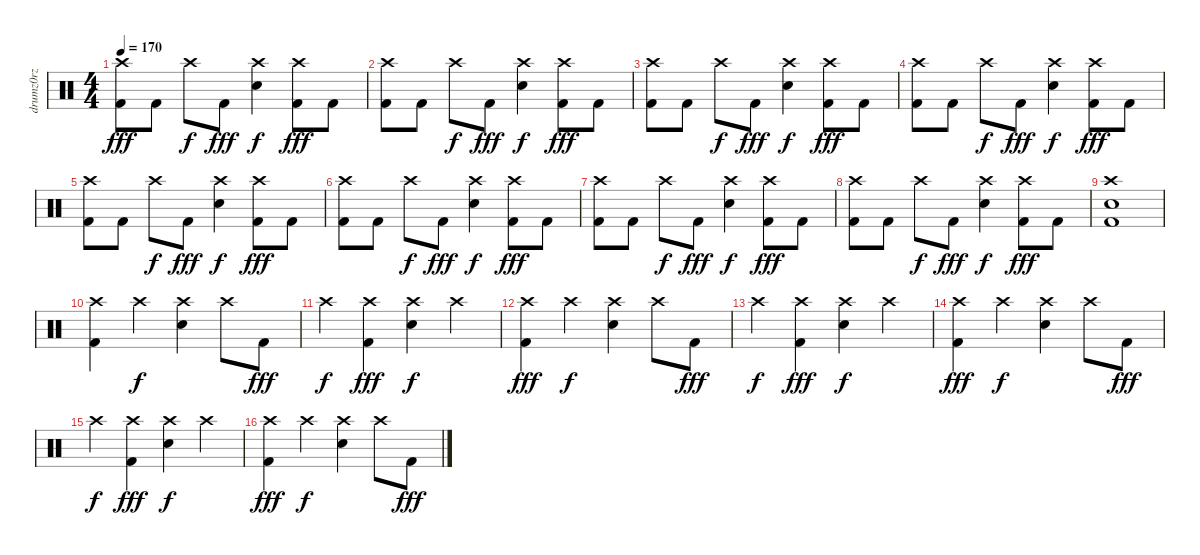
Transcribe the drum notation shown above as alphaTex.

\track ("drumz0rz" "drumz0rz") {instrument percussion}
\staff {score}
\articulation defaults
\ts (4 4)
\tempo 170
\clef neutral
\ks c
("Crash high (hit)" "Kick (hit) 2").8{dy fff} "Kick (hit) 2".8 "Crash high (hit)".8{dy f} "Kick (hit) 2".8{dy fff} ("Crash high (hit)" "Electric Snare (hit)").4{dy f} ("Crash high (hit)" "Kick (hit) 2").8{dy fff} "Kick (hit) 2".8 |
("Crash high (hit)" "Kick (hit) 2").8 "Kick (hit) 2".8 "Crash high (hit)".8{dy f} "Kick (hit) 2".8{dy fff} ("Crash high (hit)" "Electric Snare (hit)").4{dy f} ("Crash high (hit)" "Kick (hit) 2").8{dy fff} "Kick (hit) 2".8 |
("Crash high (hit)" "Kick (hit) 2").8 "Kick (hit) 2".8 "Crash high (hit)".8{dy f} "Kick (hit) 2".8{dy fff} ("Crash high (hit)" "Electric Snare (hit)").4{dy f} ("Crash high (hit)" "Kick (hit) 2").8{dy fff} "Kick (hit) 2".8 |
("Crash high (hit)" "Kick (hit) 2").8 "Kick (hit) 2".8 "Crash high (hit)".8{dy f} "Kick (hit) 2".8{dy fff} ("Crash high (hit)" "Electric Snare (hit)").4{dy f} ("Crash high (hit)" "Kick (hit) 2").8{dy fff} "Kick (hit) 2".8 |
("Crash high (hit)" "Kick (hit) 2").8 "Kick (hit) 2".8 "Crash high (hit)".8{dy f} "Kick (hit) 2".8{dy fff} ("Crash high (hit)" "Electric Snare (hit)").4{dy f} ("Crash high (hit)" "Kick (hit) 2").8{dy fff} "Kick (hit) 2".8 |
("Crash high (hit)" "Kick (hit) 2").8 "Kick (hit) 2".8 "Crash high (hit)".8{dy f} "Kick (hit) 2".8{dy fff} ("Crash high (hit)" "Electric Snare (hit)").4{dy f} ("Crash high (hit)" "Kick (hit) 2").8{dy fff} "Kick (hit) 2".8 |
("Crash high (hit)" "Kick (hit) 2").8 "Kick (hit) 2".8 "Crash high (hit)".8{dy f} "Kick (hit) 2".8{dy fff} ("Crash high (hit)" "Electric Snare (hit)").4{dy f} ("Crash high (hit)" "Kick (hit) 2").8{dy fff} "Kick (hit) 2".8 |
("Crash high (hit)" "Kick (hit) 2").8 "Kick (hit) 2".8 "Crash high (hit)".8{dy f} "Kick (hit) 2".8{dy fff} ("Crash high (hit)" "Electric Snare (hit)").4{dy f} ("Crash high (hit)" "Kick (hit) 2").8{dy fff} "Kick (hit) 2".8 |
("Crash high (hit)" "Electric Snare (hit)" "Kick (hit) 2").1 |
("Crash high (hit)" "Kick (hit) 2").4 "Crash high (hit)".4{dy f} ("Crash high (hit)" "Electric Snare (hit)").4 "Crash high (hit)".8 "Kick (hit) 2".8{dy fff} |
"Crash high (hit)".4{dy f} ("Crash high (hit)" "Kick (hit) 2").4{dy fff} ("Crash high (hit)" "Electric Snare (hit)").4{dy f} "Crash high (hit)".4 |
("Crash high (hit)" "Kick (hit) 2").4{dy fff} "Crash high (hit)".4{dy f} ("Crash high (hit)" "Electric Snare (hit)").4 "Crash high (hit)".8 "Kick (hit) 2".8{dy fff} |
"Crash high (hit)".4{dy f} ("Crash high (hit)" "Kick (hit) 2").4{dy fff} ("Crash high (hit)" "Electric Snare (hit)").4{dy f} "Crash high (hit)".4 |
("Crash high (hit)" "Kick (hit) 2").4{dy fff} "Crash high (hit)".4{dy f} ("Crash high (hit)" "Electric Snare (hit)").4 "Crash high (hit)".8 "Kick (hit) 2".8{dy fff} |
"Crash high (hit)".4{dy f} ("Crash high (hit)" "Kick (hit) 2").4{dy fff} ("Crash high (hit)" "Electric Snare (hit)").4{dy f} "Crash high (hit)".4 |
("Crash high (hit)" "Kick (hit) 2").4{dy fff} "Crash high (hit)".4{dy f} ("Crash high (hit)" "Electric Snare (hit)").4 "Crash high (hit)".8 "Kick (hit) 2".8{dy fff}
